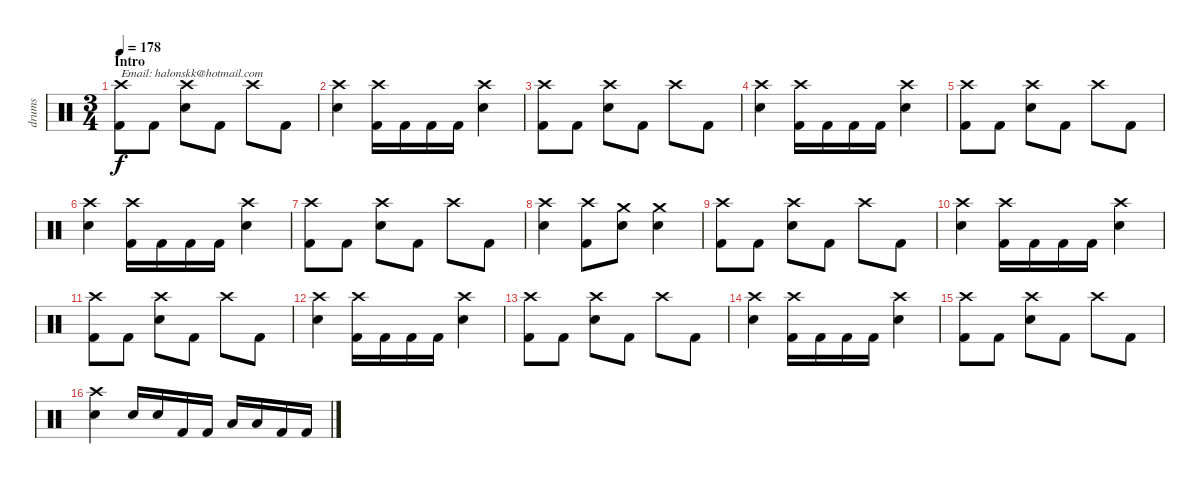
\track ("drums" "drums") {instrument percussion}
\staff {score}
\articulation defaults
\ts (3 4)
\section ("" "Intro")
\tempo 178
\clef neutral
\ks c
("Crash high (hit)" "Kick (hit) 2").8{txt "Email: halonskk@hotmail.com" dy f} "Kick (hit) 2".8 ("Crash high (hit)" "Electric Snare (hit)").8 "Kick (hit) 2".8 "Crash high (hit)".8 "Kick (hit) 2".8 |
("Crash high (hit)" "Electric Snare (hit)").4 ("Crash high (hit)" "Kick (hit) 2").16 "Kick (hit) 2".16 "Kick (hit) 2".16 "Kick (hit) 2".16 ("Crash high (hit)" "Electric Snare (hit)").4 |
("Crash high (hit)" "Kick (hit) 2").8 "Kick (hit) 2".8 ("Crash high (hit)" "Electric Snare (hit)").8 "Kick (hit) 2".8 "Crash high (hit)".8 "Kick (hit) 2".8 |
("Crash high (hit)" "Electric Snare (hit)").4 ("Crash high (hit)" "Kick (hit) 2").16 "Kick (hit) 2".16 "Kick (hit) 2".16 "Kick (hit) 2".16 ("Crash high (hit)" "Electric Snare (hit)").4 |
("Crash high (hit)" "Kick (hit) 2").8 "Kick (hit) 2".8 ("Crash high (hit)" "Electric Snare (hit)").8 "Kick (hit) 2".8 "Crash high (hit)".8 "Kick (hit) 2".8 |
("Crash high (hit)" "Electric Snare (hit)").4 ("Crash high (hit)" "Kick (hit) 2").16 "Kick (hit) 2".16 "Kick (hit) 2".16 "Kick (hit) 2".16 ("Crash high (hit)" "Electric Snare (hit)").4 |
("Crash high (hit)" "Kick (hit) 2").8 "Kick (hit) 2".8 ("Crash high (hit)" "Electric Snare (hit)").8 "Kick (hit) 2".8 "Crash high (hit)".8 "Kick (hit) 2".8 |
("Crash high (hit)" "Electric Snare (hit)").4 ("Crash high (hit)" "Kick (hit) 2").8 ("Crash medium (hit)" "Electric Snare (hit)").8 ("Crash medium (hit)" "Electric Snare (hit)").4 |
("Crash high (hit)" "Kick (hit) 2").8 "Kick (hit) 2".8 ("Crash high (hit)" "Electric Snare (hit)").8 "Kick (hit) 2".8 "Crash high (hit)".8 "Kick (hit) 2".8 |
("Crash high (hit)" "Electric Snare (hit)").4 ("Crash high (hit)" "Kick (hit) 2").16 "Kick (hit) 2".16 "Kick (hit) 2".16 "Kick (hit) 2".16 ("Crash high (hit)" "Electric Snare (hit)").4 |
("Crash high (hit)" "Kick (hit) 2").8 "Kick (hit) 2".8 ("Crash high (hit)" "Electric Snare (hit)").8 "Kick (hit) 2".8 "Crash high (hit)".8 "Kick (hit) 2".8 |
("Crash high (hit)" "Electric Snare (hit)").4 ("Crash high (hit)" "Kick (hit) 2").16 "Kick (hit) 2".16 "Kick (hit) 2".16 "Kick (hit) 2".16 ("Crash high (hit)" "Electric Snare (hit)").4 |
("Crash high (hit)" "Kick (hit) 2").8 "Kick (hit) 2".8 ("Crash high (hit)" "Electric Snare (hit)").8 "Kick (hit) 2".8 "Crash high (hit)".8 "Kick (hit) 2".8 |
("Crash high (hit)" "Electric Snare (hit)").4 ("Crash high (hit)" "Kick (hit) 2").16 "Kick (hit) 2".16 "Kick (hit) 2".16 "Kick (hit) 2".16 ("Crash high (hit)" "Electric Snare (hit)").4 |
("Crash high (hit)" "Kick (hit) 2").8 "Kick (hit) 2".8 ("Crash high (hit)" "Electric Snare (hit)").8 "Kick (hit) 2".8 "Crash high (hit)".8 "Kick (hit) 2".8 |
("Crash high (hit)" "Electric Snare (hit)").4 "Electric Snare (hit)".16 "Electric Snare (hit)".16 "Kick (hit) 2".16 "Kick (hit) 2".16 "Low Tom (hit)".16 "Low Tom (hit)".16 "Kick (hit) 2".16 "Kick (hit) 2".16
